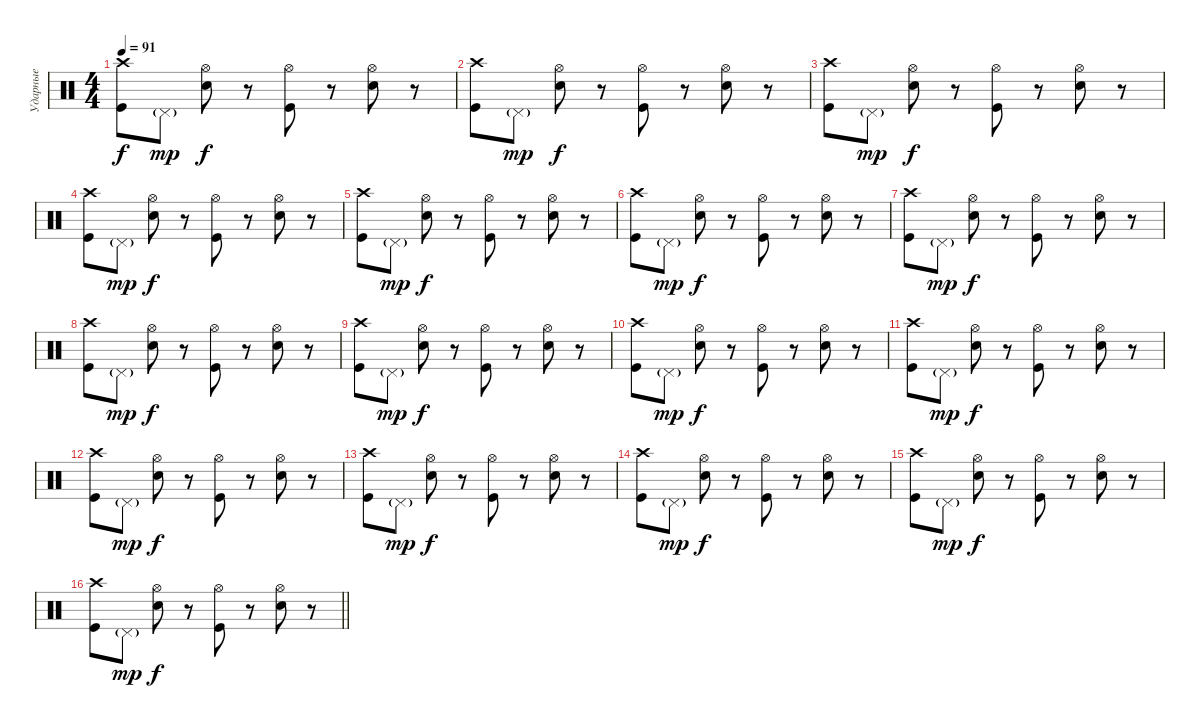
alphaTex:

\track ("Ударные" "Ударные") {instrument percussion}
\staff {score}
\articulation defaults
\ts (4 4)
\tempo 91
\clef neutral
\ks c
("Crash high (hit)" "Kick (hit)").8{dy f} "Pedal Hi-Hat (hit)"{g}.8{dy mp} ("Hi-Hat (open)" "Snare (hit) 2").8{dy f} r.8 ("Hi-Hat (open)" "Kick (hit)").8 r.8 ("Hi-Hat (open)" "Snare (hit) 2").8 r.8 |
("Crash high (hit)" "Kick (hit)").8 "Pedal Hi-Hat (hit)"{g}.8{dy mp} ("Hi-Hat (open)" "Snare (hit) 2").8{dy f} r.8 ("Hi-Hat (open)" "Kick (hit)").8 r.8 ("Hi-Hat (open)" "Snare (hit) 2").8 r.8 |
("Crash high (hit)" "Kick (hit)").8 "Pedal Hi-Hat (hit)"{g}.8{dy mp} ("Hi-Hat (open)" "Snare (hit) 2").8{dy f} r.8 ("Hi-Hat (open)" "Kick (hit)").8 r.8 ("Hi-Hat (open)" "Snare (hit) 2").8 r.8 |
("Crash high (hit)" "Kick (hit)").8 "Pedal Hi-Hat (hit)"{g}.8{dy mp} ("Hi-Hat (open)" "Snare (hit) 2").8{dy f} r.8 ("Hi-Hat (open)" "Kick (hit)").8 r.8 ("Hi-Hat (open)" "Snare (hit) 2").8 r.8 |
("Crash high (hit)" "Kick (hit)").8 "Pedal Hi-Hat (hit)"{g}.8{dy mp} ("Hi-Hat (open)" "Snare (hit) 2").8{dy f} r.8 ("Hi-Hat (open)" "Kick (hit)").8 r.8 ("Hi-Hat (open)" "Snare (hit) 2").8 r.8 |
("Crash high (hit)" "Kick (hit)").8 "Pedal Hi-Hat (hit)"{g}.8{dy mp} ("Hi-Hat (open)" "Snare (hit) 2").8{dy f} r.8 ("Hi-Hat (open)" "Kick (hit)").8 r.8 ("Hi-Hat (open)" "Snare (hit) 2").8 r.8 |
("Crash high (hit)" "Kick (hit)").8 "Pedal Hi-Hat (hit)"{g}.8{dy mp} ("Hi-Hat (open)" "Snare (hit) 2").8{dy f} r.8 ("Hi-Hat (open)" "Kick (hit)").8 r.8 ("Hi-Hat (open)" "Snare (hit) 2").8 r.8 |
("Crash high (hit)" "Kick (hit)").8 "Pedal Hi-Hat (hit)"{g}.8{dy mp} ("Hi-Hat (open)" "Snare (hit) 2").8{dy f} r.8 ("Hi-Hat (open)" "Kick (hit)").8 r.8 ("Hi-Hat (open)" "Snare (hit) 2").8 r.8 |
("Crash high (hit)" "Kick (hit)").8 "Pedal Hi-Hat (hit)"{g}.8{dy mp} ("Hi-Hat (open)" "Snare (hit) 2").8{dy f} r.8 ("Hi-Hat (open)" "Kick (hit)").8 r.8 ("Hi-Hat (open)" "Snare (hit) 2").8 r.8 |
("Crash high (hit)" "Kick (hit)").8 "Pedal Hi-Hat (hit)"{g}.8{dy mp} ("Hi-Hat (open)" "Snare (hit) 2").8{dy f} r.8 ("Hi-Hat (open)" "Kick (hit)").8 r.8 ("Hi-Hat (open)" "Snare (hit) 2").8 r.8 |
("Crash high (hit)" "Kick (hit)").8 "Pedal Hi-Hat (hit)"{g}.8{dy mp} ("Hi-Hat (open)" "Snare (hit) 2").8{dy f} r.8 ("Hi-Hat (open)" "Kick (hit)").8 r.8 ("Hi-Hat (open)" "Snare (hit) 2").8 r.8 |
("Crash high (hit)" "Kick (hit)").8 "Pedal Hi-Hat (hit)"{g}.8{dy mp} ("Hi-Hat (open)" "Snare (hit) 2").8{dy f} r.8 ("Hi-Hat (open)" "Kick (hit)").8 r.8 ("Hi-Hat (open)" "Snare (hit) 2").8 r.8 |
("Crash high (hit)" "Kick (hit)").8 "Pedal Hi-Hat (hit)"{g}.8{dy mp} ("Hi-Hat (open)" "Snare (hit) 2").8{dy f} r.8 ("Hi-Hat (open)" "Kick (hit)").8 r.8 ("Hi-Hat (open)" "Snare (hit) 2").8 r.8 |
("Crash high (hit)" "Kick (hit)").8 "Pedal Hi-Hat (hit)"{g}.8{dy mp} ("Hi-Hat (open)" "Snare (hit) 2").8{dy f} r.8 ("Hi-Hat (open)" "Kick (hit)").8 r.8 ("Hi-Hat (open)" "Snare (hit) 2").8 r.8 |
("Crash high (hit)" "Kick (hit)").8 "Pedal Hi-Hat (hit)"{g}.8{dy mp} ("Hi-Hat (open)" "Snare (hit) 2").8{dy f} r.8 ("Hi-Hat (open)" "Kick (hit)").8 r.8 ("Hi-Hat (open)" "Snare (hit) 2").8 r.8 |
\barLineRight lightlight
("Crash high (hit)" "Kick (hit)").8 "Pedal Hi-Hat (hit)"{g}.8{dy mp} ("Hi-Hat (open)" "Snare (hit) 2").8{dy f} r.8 ("Hi-Hat (open)" "Kick (hit)").8 r.8 ("Hi-Hat (open)" "Snare (hit) 2").8 r.8
